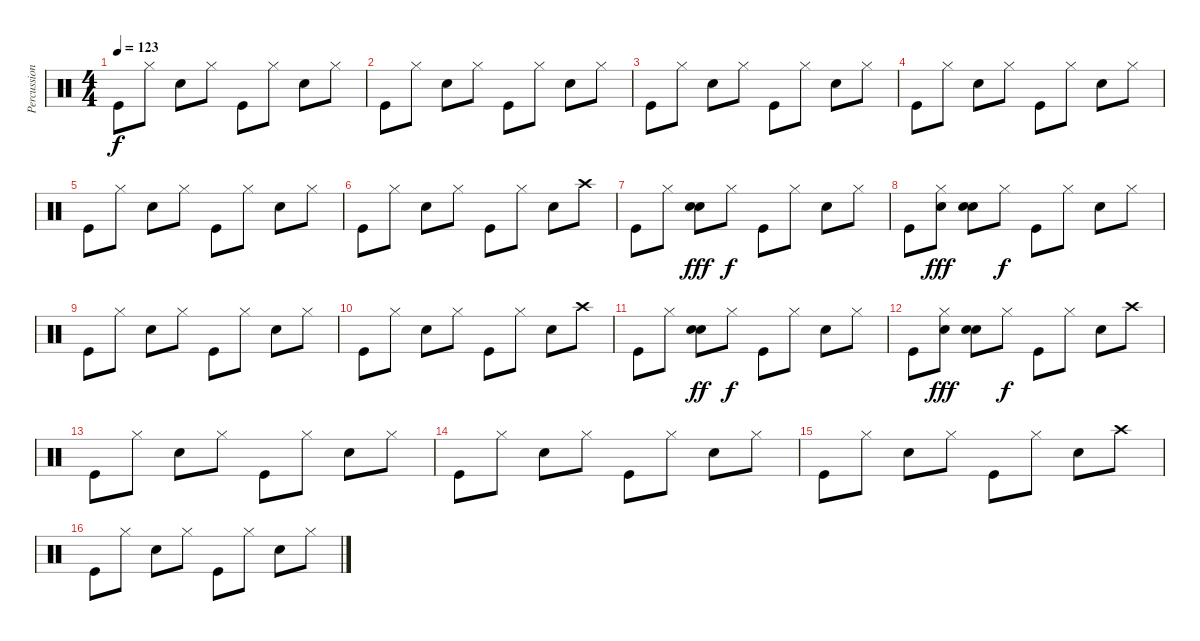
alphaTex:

\track ("Percussion" "Percussion") {instrument percussion}
\staff {score}
\articulation defaults
\ts (4 4)
\tempo 123
\clef neutral
\ks c "Kick (hit)".8{dy f} "Hi-Hat (closed)".8 "Snare (hit) 2".8 "Hi-Hat (closed)".8 "Kick (hit)".8 "Hi-Hat (closed)".8 "Snare (hit) 2".8 "Hi-Hat (closed)".8
|
"Kick (hit)".8 "Hi-Hat (closed)".8 "Snare (hit) 2".8 "Hi-Hat (closed)".8 "Kick (hit)".8 "Hi-Hat (closed)".8 "Snare (hit) 2".8 "Hi-Hat (closed)".8 |
"Kick (hit)".8 "Hi-Hat (closed)".8 "Snare (hit) 2".8 "Hi-Hat (closed)".8 "Kick (hit)".8 "Hi-Hat (closed)".8 "Snare (hit) 2".8 "Hi-Hat (closed)".8 |
"Kick (hit)".8 "Hi-Hat (closed)".8 "Snare (hit) 2".8 "Hi-Hat (closed)".8 "Kick (hit)".8 "Hi-Hat (closed)".8 "Snare (hit) 2".8 "Hi-Hat (closed)".8 |
"Kick (hit)".8 "Hi-Hat (closed)".8 "Snare (hit) 2".8 "Hi-Hat (closed)".8 "Kick (hit)".8 "Hi-Hat (closed)".8 "Snare (hit) 2".8 "Hi-Hat (closed)".8 |
"Kick (hit)".8 "Hi-Hat (closed)".8 "Snare (hit) 2".8 "Hi-Hat (closed)".8 "Kick (hit)".8 "Hi-Hat (closed)".8 "Snare (hit) 2".8 "Crash high (hit)".8 |
"Kick (hit)".8 "Hi-Hat (closed)".8 ("Hand Clap (hit)" "Snare (hit) 2").8{dy fff} "Hi-Hat (closed)".8{dy f} "Kick (hit)".8 "Hi-Hat (closed)".8 "Snare (hit) 2".8 "Hi-Hat (closed)".8 |
"Kick (hit)".8 ("Hi-Hat (closed)" "Hand Clap (hit)").8{dy fff} ("Hand Clap (hit)" "Snare (hit) 2").8 "Hi-Hat (closed)".8{dy f} "Kick (hit)".8 "Hi-Hat (closed)".8 "Snare (hit) 2".8 "Hi-Hat (closed)".8 |
"Kick (hit)".8 "Hi-Hat (closed)".8 "Snare (hit) 2".8 "Hi-Hat (closed)".8 "Kick (hit)".8 "Hi-Hat (closed)".8 "Snare (hit) 2".8 "Hi-Hat (closed)".8 |
"Kick (hit)".8 "Hi-Hat (closed)".8 "Snare (hit) 2".8 "Hi-Hat (closed)".8 "Kick (hit)".8 "Hi-Hat (closed)".8 "Snare (hit) 2".8 "Crash high (hit)".8 |
"Kick (hit)".8 "Hi-Hat (closed)".8 ("Hand Clap (hit)" "Snare (hit) 2").8{dy ff} "Hi-Hat (closed)".8{dy f} "Kick (hit)".8 "Hi-Hat (closed)".8 "Snare (hit) 2".8 "Hi-Hat (closed)".8 |
"Kick (hit)".8 ("Hi-Hat (closed)" "Hand Clap (hit)").8{dy fff} ("Hand Clap (hit)" "Snare (hit) 2").8 "Hi-Hat (closed)".8{dy f} "Kick (hit)".8 "Hi-Hat (closed)".8 "Snare (hit) 2".8 "Crash high (hit)".8 |
"Kick (hit)".8 "Hi-Hat (closed)".8 "Snare (hit) 2".8 "Hi-Hat (closed)".8 "Kick (hit)".8 "Hi-Hat (closed)".8 "Snare (hit) 2".8 "Hi-Hat (closed)".8 |
"Kick (hit)".8 "Hi-Hat (closed)".8 "Snare (hit) 2".8 "Hi-Hat (closed)".8 "Kick (hit)".8 "Hi-Hat (closed)".8 "Snare (hit) 2".8 "Hi-Hat (closed)".8 |
"Kick (hit)".8 "Hi-Hat (closed)".8 "Snare (hit) 2".8 "Hi-Hat (closed)".8 "Kick (hit)".8 "Hi-Hat (closed)".8 "Snare (hit) 2".8 "Crash high (hit)".8 |
"Kick (hit)".8 "Hi-Hat (closed)".8 "Snare (hit) 2".8 "Hi-Hat (closed)".8 "Kick (hit)".8 "Hi-Hat (closed)".8 "Snare (hit) 2".8 "Hi-Hat (closed)".8
